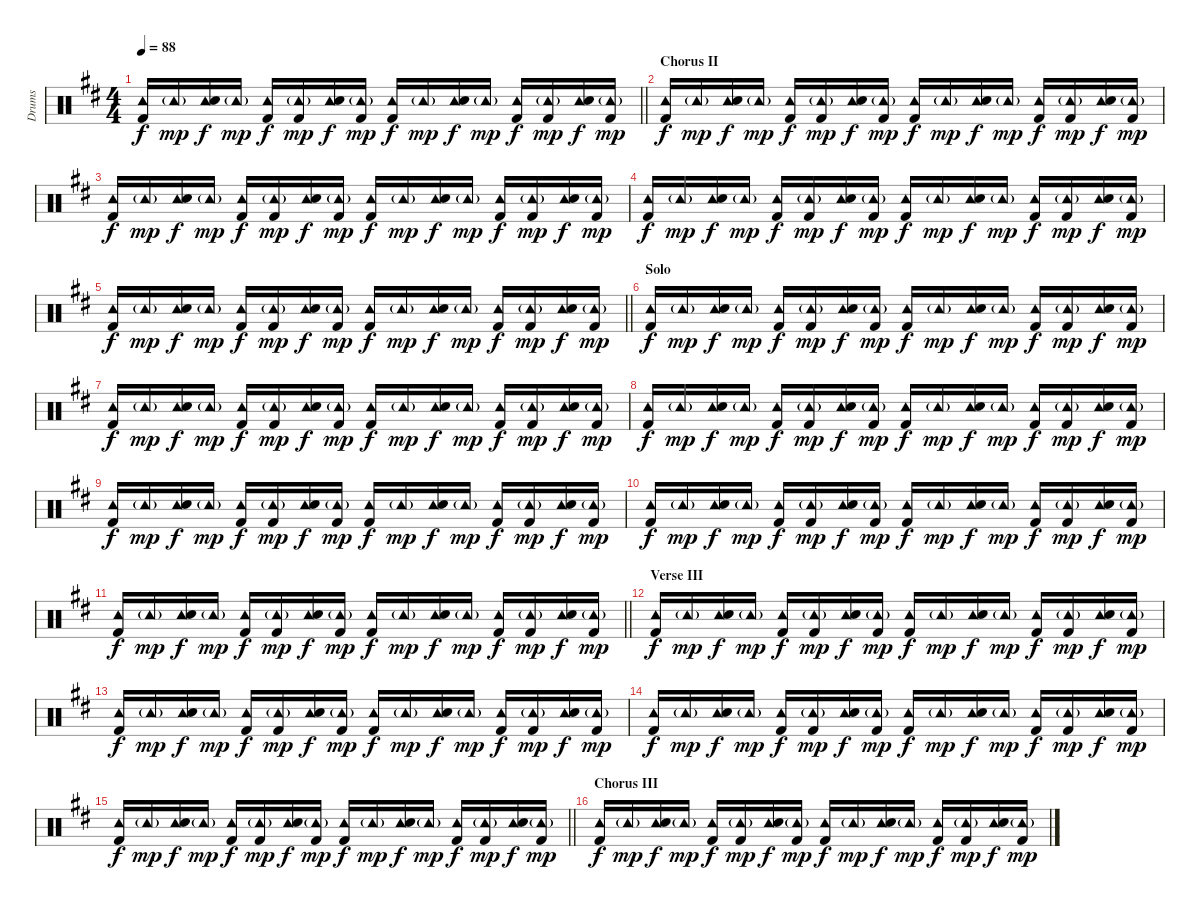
\track ("Drums" "Drums") {instrument percussion}
\staff {score}
\articulation defaults
\ts (4 4)
\tempo 88
\clef neutral
\barLineRight lightlight
\ks d
("Tambourine (hit)" "Kick (hit) 2").16{dy f} "Tambourine (hit)"{g}.16{dy mp} ("Tambourine (hit)" "Snare (hit) 2").16{dy f} "Tambourine (hit)"{g}.16{dy mp} ("Tambourine (hit)" "Kick (hit) 2").16{dy f} ("Tambourine (hit)"{g} "Kick (hit) 2").16{dy mp} ("Tambourine (hit)" "Snare (hit) 2").16{dy f} ("Tambourine (hit)"{g} "Kick (hit) 2").16{dy mp} ("Tambourine (hit)" "Kick (hit) 2").16{dy f} "Tambourine (hit)"{g}.16{dy mp} ("Tambourine (hit)" "Snare (hit) 2").16{dy f} "Tambourine (hit)"{g}.16{dy mp} ("Tambourine (hit)" "Kick (hit) 2").16{dy f} ("Tambourine (hit)"{g} "Kick (hit) 2").16{dy mp} ("Tambourine (hit)" "Snare (hit) 2").16{dy f} ("Tambourine (hit)"{g} "Kick (hit) 2").16{dy mp} |
\section ("" "Chorus II")
("Tambourine (hit)" "Kick (hit) 2").16{dy f} "Tambourine (hit)"{g}.16{dy mp} ("Tambourine (hit)" "Snare (hit) 2").16{dy f} "Tambourine (hit)"{g}.16{dy mp} ("Tambourine (hit)" "Kick (hit) 2").16{dy f} ("Tambourine (hit)"{g} "Kick (hit) 2").16{dy mp} ("Tambourine (hit)" "Snare (hit) 2").16{dy f} ("Tambourine (hit)"{g} "Kick (hit) 2").16{dy mp} ("Tambourine (hit)" "Kick (hit) 2").16{dy f} "Tambourine (hit)"{g}.16{dy mp} ("Tambourine (hit)" "Snare (hit) 2").16{dy f} "Tambourine (hit)"{g}.16{dy mp} ("Tambourine (hit)" "Kick (hit) 2").16{dy f} ("Tambourine (hit)"{g} "Kick (hit) 2").16{dy mp} ("Tambourine (hit)" "Snare (hit) 2").16{dy f} ("Tambourine (hit)"{g} "Kick (hit) 2").16{dy mp} |
("Tambourine (hit)" "Kick (hit) 2").16{dy f} "Tambourine (hit)"{g}.16{dy mp} ("Tambourine (hit)" "Snare (hit) 2").16{dy f} "Tambourine (hit)"{g}.16{dy mp} ("Tambourine (hit)" "Kick (hit) 2").16{dy f} ("Tambourine (hit)"{g} "Kick (hit) 2").16{dy mp} ("Tambourine (hit)" "Snare (hit) 2").16{dy f} ("Tambourine (hit)"{g} "Kick (hit) 2").16{dy mp} ("Tambourine (hit)" "Kick (hit) 2").16{dy f} "Tambourine (hit)"{g}.16{dy mp} ("Tambourine (hit)" "Snare (hit) 2").16{dy f} "Tambourine (hit)"{g}.16{dy mp} ("Tambourine (hit)" "Kick (hit) 2").16{dy f} ("Tambourine (hit)"{g} "Kick (hit) 2").16{dy mp} ("Tambourine (hit)" "Snare (hit) 2").16{dy f} ("Tambourine (hit)"{g} "Kick (hit) 2").16{dy mp} |
("Tambourine (hit)" "Kick (hit) 2").16{dy f} "Tambourine (hit)"{g}.16{dy mp} ("Tambourine (hit)" "Snare (hit) 2").16{dy f} "Tambourine (hit)"{g}.16{dy mp} ("Tambourine (hit)" "Kick (hit) 2").16{dy f} ("Tambourine (hit)"{g} "Kick (hit) 2").16{dy mp} ("Tambourine (hit)" "Snare (hit) 2").16{dy f} ("Tambourine (hit)"{g} "Kick (hit) 2").16{dy mp} ("Tambourine (hit)" "Kick (hit) 2").16{dy f} "Tambourine (hit)"{g}.16{dy mp} ("Tambourine (hit)" "Snare (hit) 2").16{dy f} "Tambourine (hit)"{g}.16{dy mp} ("Tambourine (hit)" "Kick (hit) 2").16{dy f} ("Tambourine (hit)"{g} "Kick (hit) 2").16{dy mp} ("Tambourine (hit)" "Snare (hit) 2").16{dy f} ("Tambourine (hit)"{g} "Kick (hit) 2").16{dy mp} |
\barLineRight lightlight
("Tambourine (hit)" "Kick (hit) 2").16{dy f} "Tambourine (hit)"{g}.16{dy mp} ("Tambourine (hit)" "Snare (hit) 2").16{dy f} "Tambourine (hit)"{g}.16{dy mp} ("Tambourine (hit)" "Kick (hit) 2").16{dy f} ("Tambourine (hit)"{g} "Kick (hit) 2").16{dy mp} ("Tambourine (hit)" "Snare (hit) 2").16{dy f} ("Tambourine (hit)"{g} "Kick (hit) 2").16{dy mp} ("Tambourine (hit)" "Kick (hit) 2").16{dy f} "Tambourine (hit)"{g}.16{dy mp} ("Tambourine (hit)" "Snare (hit) 2").16{dy f} "Tambourine (hit)"{g}.16{dy mp} ("Tambourine (hit)" "Kick (hit) 2").16{dy f} ("Tambourine (hit)"{g} "Kick (hit) 2").16{dy mp} ("Tambourine (hit)" "Snare (hit) 2").16{dy f} ("Tambourine (hit)"{g} "Kick (hit) 2").16{dy mp} |
\section ("" "Solo")
("Tambourine (hit)" "Kick (hit) 2").16{dy f} "Tambourine (hit)"{g}.16{dy mp} ("Tambourine (hit)" "Snare (hit) 2").16{dy f} "Tambourine (hit)"{g}.16{dy mp} ("Tambourine (hit)" "Kick (hit) 2").16{dy f} ("Tambourine (hit)"{g} "Kick (hit) 2").16{dy mp} ("Tambourine (hit)" "Snare (hit) 2").16{dy f} ("Tambourine (hit)"{g} "Kick (hit) 2").16{dy mp} ("Tambourine (hit)" "Kick (hit) 2").16{dy f} "Tambourine (hit)"{g}.16{dy mp} ("Tambourine (hit)" "Snare (hit) 2").16{dy f} "Tambourine (hit)"{g}.16{dy mp} ("Tambourine (hit)" "Kick (hit) 2").16{dy f} ("Tambourine (hit)"{g} "Kick (hit) 2").16{dy mp} ("Tambourine (hit)" "Snare (hit) 2").16{dy f} ("Tambourine (hit)"{g} "Kick (hit) 2").16{dy mp} |
("Tambourine (hit)" "Kick (hit) 2").16{dy f} "Tambourine (hit)"{g}.16{dy mp} ("Tambourine (hit)" "Snare (hit) 2").16{dy f} "Tambourine (hit)"{g}.16{dy mp} ("Tambourine (hit)" "Kick (hit) 2").16{dy f} ("Tambourine (hit)"{g} "Kick (hit) 2").16{dy mp} ("Tambourine (hit)" "Snare (hit) 2").16{dy f} ("Tambourine (hit)"{g} "Kick (hit) 2").16{dy mp} ("Tambourine (hit)" "Kick (hit) 2").16{dy f} "Tambourine (hit)"{g}.16{dy mp} ("Tambourine (hit)" "Snare (hit) 2").16{dy f} "Tambourine (hit)"{g}.16{dy mp} ("Tambourine (hit)" "Kick (hit) 2").16{dy f} ("Tambourine (hit)"{g} "Kick (hit) 2").16{dy mp} ("Tambourine (hit)" "Snare (hit) 2").16{dy f} ("Tambourine (hit)"{g} "Kick (hit) 2").16{dy mp} |
("Tambourine (hit)" "Kick (hit) 2").16{dy f} "Tambourine (hit)"{g}.16{dy mp} ("Tambourine (hit)" "Snare (hit) 2").16{dy f} "Tambourine (hit)"{g}.16{dy mp} ("Tambourine (hit)" "Kick (hit) 2").16{dy f} ("Tambourine (hit)"{g} "Kick (hit) 2").16{dy mp} ("Tambourine (hit)" "Snare (hit) 2").16{dy f} ("Tambourine (hit)"{g} "Kick (hit) 2").16{dy mp} ("Tambourine (hit)" "Kick (hit) 2").16{dy f} "Tambourine (hit)"{g}.16{dy mp} ("Tambourine (hit)" "Snare (hit) 2").16{dy f} "Tambourine (hit)"{g}.16{dy mp} ("Tambourine (hit)" "Kick (hit) 2").16{dy f} ("Tambourine (hit)"{g} "Kick (hit) 2").16{dy mp} ("Tambourine (hit)" "Snare (hit) 2").16{dy f} ("Tambourine (hit)"{g} "Kick (hit) 2").16{dy mp} |
("Tambourine (hit)" "Kick (hit) 2").16{dy f} "Tambourine (hit)"{g}.16{dy mp} ("Tambourine (hit)" "Snare (hit) 2").16{dy f} "Tambourine (hit)"{g}.16{dy mp} ("Tambourine (hit)" "Kick (hit) 2").16{dy f} ("Tambourine (hit)"{g} "Kick (hit) 2").16{dy mp} ("Tambourine (hit)" "Snare (hit) 2").16{dy f} ("Tambourine (hit)"{g} "Kick (hit) 2").16{dy mp} ("Tambourine (hit)" "Kick (hit) 2").16{dy f} "Tambourine (hit)"{g}.16{dy mp} ("Tambourine (hit)" "Snare (hit) 2").16{dy f} "Tambourine (hit)"{g}.16{dy mp} ("Tambourine (hit)" "Kick (hit) 2").16{dy f} ("Tambourine (hit)"{g} "Kick (hit) 2").16{dy mp} ("Tambourine (hit)" "Snare (hit) 2").16{dy f} ("Tambourine (hit)"{g} "Kick (hit) 2").16{dy mp} |
("Tambourine (hit)" "Kick (hit) 2").16{dy f} "Tambourine (hit)"{g}.16{dy mp} ("Tambourine (hit)" "Snare (hit) 2").16{dy f} "Tambourine (hit)"{g}.16{dy mp} ("Tambourine (hit)" "Kick (hit) 2").16{dy f} ("Tambourine (hit)"{g} "Kick (hit) 2").16{dy mp} ("Tambourine (hit)" "Snare (hit) 2").16{dy f} ("Tambourine (hit)"{g} "Kick (hit) 2").16{dy mp} ("Tambourine (hit)" "Kick (hit) 2").16{dy f} "Tambourine (hit)"{g}.16{dy mp} ("Tambourine (hit)" "Snare (hit) 2").16{dy f} "Tambourine (hit)"{g}.16{dy mp} ("Tambourine (hit)" "Kick (hit) 2").16{dy f} ("Tambourine (hit)"{g} "Kick (hit) 2").16{dy mp} ("Tambourine (hit)" "Snare (hit) 2").16{dy f} ("Tambourine (hit)"{g} "Kick (hit) 2").16{dy mp} |
\barLineRight lightlight
("Tambourine (hit)" "Kick (hit) 2").16{dy f} "Tambourine (hit)"{g}.16{dy mp} ("Tambourine (hit)" "Snare (hit) 2").16{dy f} "Tambourine (hit)"{g}.16{dy mp} ("Tambourine (hit)" "Kick (hit) 2").16{dy f} ("Tambourine (hit)"{g} "Kick (hit) 2").16{dy mp} ("Tambourine (hit)" "Snare (hit) 2").16{dy f} ("Tambourine (hit)"{g} "Kick (hit) 2").16{dy mp} ("Tambourine (hit)" "Kick (hit) 2").16{dy f} "Tambourine (hit)"{g}.16{dy mp} ("Tambourine (hit)" "Snare (hit) 2").16{dy f} "Tambourine (hit)"{g}.16{dy mp} ("Tambourine (hit)" "Kick (hit) 2").16{dy f} ("Tambourine (hit)"{g} "Kick (hit) 2").16{dy mp} ("Tambourine (hit)" "Snare (hit) 2").16{dy f} ("Tambourine (hit)"{g} "Kick (hit) 2").16{dy mp} |
\section ("" "Verse III")
("Tambourine (hit)" "Kick (hit) 2").16{dy f} "Tambourine (hit)"{g}.16{dy mp} ("Tambourine (hit)" "Snare (hit) 2").16{dy f} "Tambourine (hit)"{g}.16{dy mp} ("Tambourine (hit)" "Kick (hit) 2").16{dy f} ("Tambourine (hit)"{g} "Kick (hit) 2").16{dy mp} ("Tambourine (hit)" "Snare (hit) 2").16{dy f} ("Tambourine (hit)"{g} "Kick (hit) 2").16{dy mp} ("Tambourine (hit)" "Kick (hit) 2").16{dy f} "Tambourine (hit)"{g}.16{dy mp} ("Tambourine (hit)" "Snare (hit) 2").16{dy f} "Tambourine (hit)"{g}.16{dy mp} ("Tambourine (hit)" "Kick (hit) 2").16{dy f} ("Tambourine (hit)"{g} "Kick (hit) 2").16{dy mp} ("Tambourine (hit)" "Snare (hit) 2").16{dy f} ("Tambourine (hit)"{g} "Kick (hit) 2").16{dy mp} |
("Tambourine (hit)" "Kick (hit) 2").16{dy f} "Tambourine (hit)"{g}.16{dy mp} ("Tambourine (hit)" "Snare (hit) 2").16{dy f} "Tambourine (hit)"{g}.16{dy mp} ("Tambourine (hit)" "Kick (hit) 2").16{dy f} ("Tambourine (hit)"{g} "Kick (hit) 2").16{dy mp} ("Tambourine (hit)" "Snare (hit) 2").16{dy f} ("Tambourine (hit)"{g} "Kick (hit) 2").16{dy mp} ("Tambourine (hit)" "Kick (hit) 2").16{dy f} "Tambourine (hit)"{g}.16{dy mp} ("Tambourine (hit)" "Snare (hit) 2").16{dy f} "Tambourine (hit)"{g}.16{dy mp} ("Tambourine (hit)" "Kick (hit) 2").16{dy f} ("Tambourine (hit)"{g} "Kick (hit) 2").16{dy mp} ("Tambourine (hit)" "Snare (hit) 2").16{dy f} ("Tambourine (hit)"{g} "Kick (hit) 2").16{dy mp} |
("Tambourine (hit)" "Kick (hit) 2").16{dy f} "Tambourine (hit)"{g}.16{dy mp} ("Tambourine (hit)" "Snare (hit) 2").16{dy f} "Tambourine (hit)"{g}.16{dy mp} ("Tambourine (hit)" "Kick (hit) 2").16{dy f} ("Tambourine (hit)"{g} "Kick (hit) 2").16{dy mp} ("Tambourine (hit)" "Snare (hit) 2").16{dy f} ("Tambourine (hit)"{g} "Kick (hit) 2").16{dy mp} ("Tambourine (hit)" "Kick (hit) 2").16{dy f} "Tambourine (hit)"{g}.16{dy mp} ("Tambourine (hit)" "Snare (hit) 2").16{dy f} "Tambourine (hit)"{g}.16{dy mp} ("Tambourine (hit)" "Kick (hit) 2").16{dy f} ("Tambourine (hit)"{g} "Kick (hit) 2").16{dy mp} ("Tambourine (hit)" "Snare (hit) 2").16{dy f} ("Tambourine (hit)"{g} "Kick (hit) 2").16{dy mp} |
\barLineRight lightlight
("Tambourine (hit)" "Kick (hit) 2").16{dy f} "Tambourine (hit)"{g}.16{dy mp} ("Tambourine (hit)" "Snare (hit) 2").16{dy f} "Tambourine (hit)"{g}.16{dy mp} ("Tambourine (hit)" "Kick (hit) 2").16{dy f} ("Tambourine (hit)"{g} "Kick (hit) 2").16{dy mp} ("Tambourine (hit)" "Snare (hit) 2").16{dy f} ("Tambourine (hit)"{g} "Kick (hit) 2").16{dy mp} ("Tambourine (hit)" "Kick (hit) 2").16{dy f} "Tambourine (hit)"{g}.16{dy mp} ("Tambourine (hit)" "Snare (hit) 2").16{dy f} "Tambourine (hit)"{g}.16{dy mp} ("Tambourine (hit)" "Kick (hit) 2").16{dy f} ("Tambourine (hit)"{g} "Kick (hit) 2").16{dy mp} ("Tambourine (hit)" "Snare (hit) 2").16{dy f} ("Tambourine (hit)"{g} "Kick (hit) 2").16{dy mp} |
\section ("" "Chorus III")
("Tambourine (hit)" "Kick (hit) 2").16{dy f} "Tambourine (hit)"{g}.16{dy mp} ("Tambourine (hit)" "Snare (hit) 2").16{dy f} "Tambourine (hit)"{g}.16{dy mp} ("Tambourine (hit)" "Kick (hit) 2").16{dy f} ("Tambourine (hit)"{g} "Kick (hit) 2").16{dy mp} ("Tambourine (hit)" "Snare (hit) 2").16{dy f} ("Tambourine (hit)"{g} "Kick (hit) 2").16{dy mp} ("Tambourine (hit)" "Kick (hit) 2").16{dy f} "Tambourine (hit)"{g}.16{dy mp} ("Tambourine (hit)" "Snare (hit) 2").16{dy f} "Tambourine (hit)"{g}.16{dy mp} ("Tambourine (hit)" "Kick (hit) 2").16{dy f} ("Tambourine (hit)"{g} "Kick (hit) 2").16{dy mp} ("Tambourine (hit)" "Snare (hit) 2").16{dy f} ("Tambourine (hit)"{g} "Kick (hit) 2").16{dy mp}
